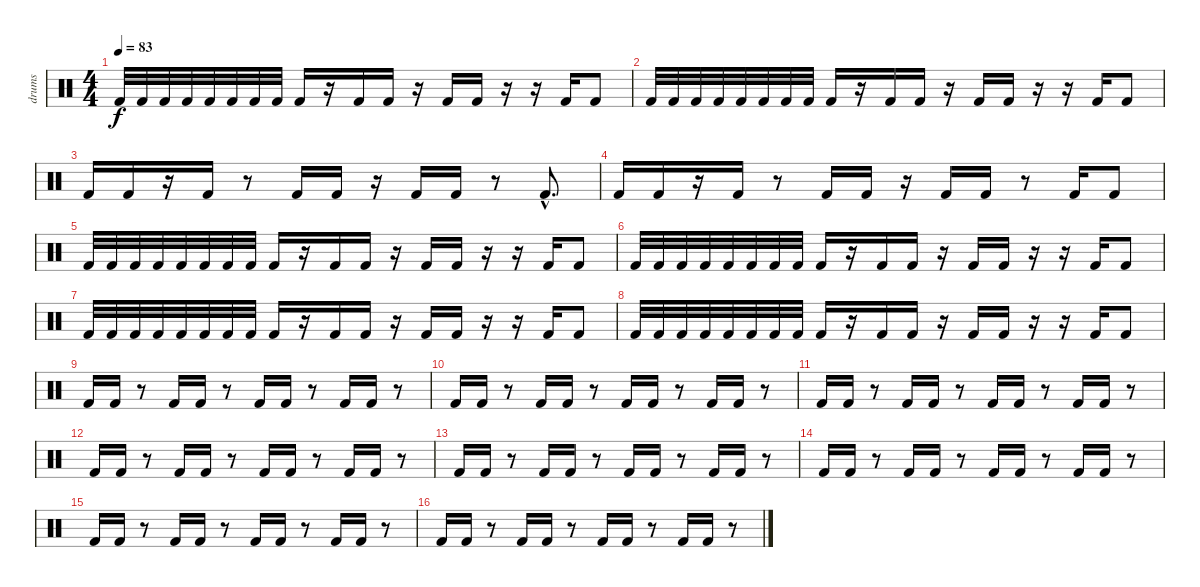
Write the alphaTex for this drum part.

\track ("drums" "drums") {instrument percussion}
\staff {score}
\articulation defaults
\ts (4 4)
\tempo 83
\clef neutral
\ks c "Kick (hit) 2".32{dy f} "Kick (hit) 2".32 "Kick (hit) 2".32 "Kick (hit) 2".32 "Kick (hit) 2".32 "Kick (hit) 2".32 "Kick (hit) 2".32 "Kick (hit) 2".32 "Kick (hit) 2".16
r.16 "Kick (hit) 2".16 "Kick (hit) 2".16 r.16 "Kick (hit) 2".16 "Kick (hit) 2".16 r.16 r.16 "Kick (hit) 2".16 "Kick (hit) 2".8 |
"Kick (hit) 2".32 "Kick (hit) 2".32 "Kick (hit) 2".32 "Kick (hit) 2".32 "Kick (hit) 2".32 "Kick (hit) 2".32 "Kick (hit) 2".32 "Kick (hit) 2".32 "Kick (hit) 2".16 r.16 "Kick (hit) 2".16 "Kick (hit) 2".16 r.16 "Kick (hit) 2".16 "Kick (hit) 2".16 r.16 r.16 "Kick (hit) 2".16 "Kick (hit) 2".8 |
"Kick (hit) 2".16 "Kick (hit) 2".16 r.16 "Kick (hit) 2".16 r.8 "Kick (hit) 2".16 "Kick (hit) 2".16 r.16 "Kick (hit) 2".16 "Kick (hit) 2".16 r.8 "Kick (hit) 2"{hac}.8{d} |
"Kick (hit) 2".16 "Kick (hit) 2".16 r.16 "Kick (hit) 2".16 r.8 "Kick (hit) 2".16 "Kick (hit) 2".16 r.16 "Kick (hit) 2".16 "Kick (hit) 2".16 r.8 "Kick (hit) 2".16 "Kick (hit) 2".8 |
"Kick (hit) 2".32 "Kick (hit) 2".32 "Kick (hit) 2".32 "Kick (hit) 2".32 "Kick (hit) 2".32 "Kick (hit) 2".32 "Kick (hit) 2".32 "Kick (hit) 2".32 "Kick (hit) 2".16 r.16 "Kick (hit) 2".16 "Kick (hit) 2".16 r.16 "Kick (hit) 2".16 "Kick (hit) 2".16 r.16 r.16 "Kick (hit) 2".16 "Kick (hit) 2".8 |
"Kick (hit) 2".32 "Kick (hit) 2".32 "Kick (hit) 2".32 "Kick (hit) 2".32 "Kick (hit) 2".32 "Kick (hit) 2".32 "Kick (hit) 2".32 "Kick (hit) 2".32 "Kick (hit) 2".16 r.16 "Kick (hit) 2".16 "Kick (hit) 2".16 r.16 "Kick (hit) 2".16 "Kick (hit) 2".16 r.16 r.16 "Kick (hit) 2".16 "Kick (hit) 2".8 |
"Kick (hit) 2".32 "Kick (hit) 2".32 "Kick (hit) 2".32 "Kick (hit) 2".32 "Kick (hit) 2".32 "Kick (hit) 2".32 "Kick (hit) 2".32 "Kick (hit) 2".32 "Kick (hit) 2".16 r.16 "Kick (hit) 2".16 "Kick (hit) 2".16 r.16 "Kick (hit) 2".16 "Kick (hit) 2".16 r.16 r.16 "Kick (hit) 2".16 "Kick (hit) 2".8 |
"Kick (hit) 2".32 "Kick (hit) 2".32 "Kick (hit) 2".32 "Kick (hit) 2".32 "Kick (hit) 2".32 "Kick (hit) 2".32 "Kick (hit) 2".32 "Kick (hit) 2".32 "Kick (hit) 2".16 r.16 "Kick (hit) 2".16 "Kick (hit) 2".16 r.16 "Kick (hit) 2".16 "Kick (hit) 2".16 r.16 r.16 "Kick (hit) 2".16 "Kick (hit) 2".8 |
"Kick (hit) 2".16 "Kick (hit) 2".16 r.8 "Kick (hit) 2".16 "Kick (hit) 2".16 r.8 "Kick (hit) 2".16 "Kick (hit) 2".16 r.8 "Kick (hit) 2".16 "Kick (hit) 2".16 r.8 |
"Kick (hit) 2".16 "Kick (hit) 2".16 r.8 "Kick (hit) 2".16 "Kick (hit) 2".16 r.8 "Kick (hit) 2".16 "Kick (hit) 2".16 r.8 "Kick (hit) 2".16 "Kick (hit) 2".16 r.8 |
"Kick (hit) 2".16 "Kick (hit) 2".16 r.8 "Kick (hit) 2".16 "Kick (hit) 2".16 r.8 "Kick (hit) 2".16 "Kick (hit) 2".16 r.8 "Kick (hit) 2".16 "Kick (hit) 2".16 r.8 |
"Kick (hit) 2".16 "Kick (hit) 2".16 r.8 "Kick (hit) 2".16 "Kick (hit) 2".16 r.8 "Kick (hit) 2".16 "Kick (hit) 2".16 r.8 "Kick (hit) 2".16 "Kick (hit) 2".16 r.8 |
"Kick (hit) 2".16 "Kick (hit) 2".16 r.8 "Kick (hit) 2".16 "Kick (hit) 2".16 r.8 "Kick (hit) 2".16 "Kick (hit) 2".16 r.8 "Kick (hit) 2".16 "Kick (hit) 2".16 r.8 |
"Kick (hit) 2".16 "Kick (hit) 2".16 r.8 "Kick (hit) 2".16 "Kick (hit) 2".16 r.8 "Kick (hit) 2".16 "Kick (hit) 2".16 r.8 "Kick (hit) 2".16 "Kick (hit) 2".16 r.8 |
"Kick (hit) 2".16 "Kick (hit) 2".16 r.8 "Kick (hit) 2".16 "Kick (hit) 2".16 r.8 "Kick (hit) 2".16 "Kick (hit) 2".16 r.8 "Kick (hit) 2".16 "Kick (hit) 2".16 r.8 |
"Kick (hit) 2".16 "Kick (hit) 2".16 r.8 "Kick (hit) 2".16 "Kick (hit) 2".16 r.8 "Kick (hit) 2".16 "Kick (hit) 2".16 r.8 "Kick (hit) 2".16 "Kick (hit) 2".16 r.8
